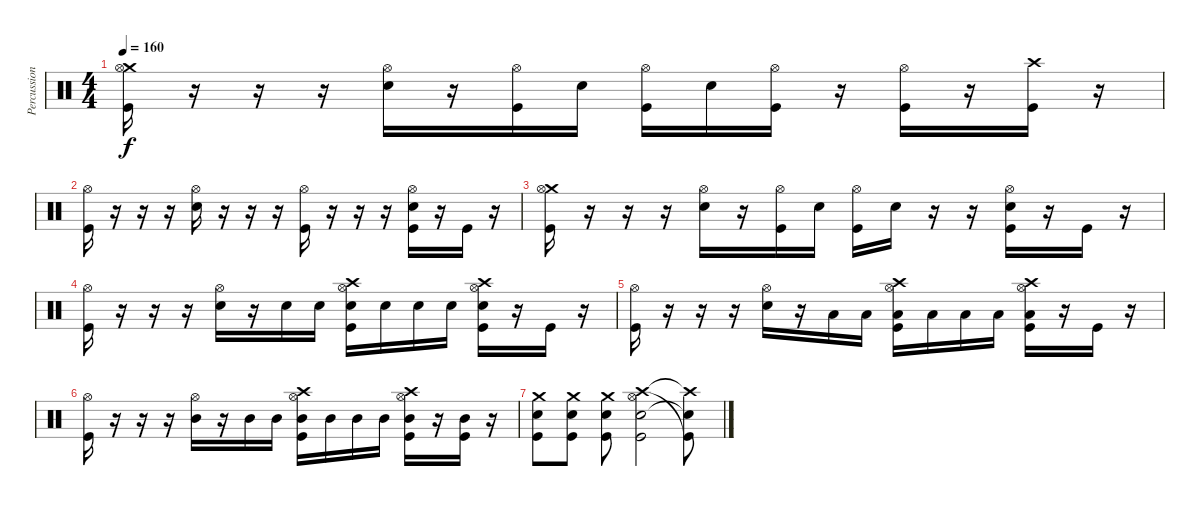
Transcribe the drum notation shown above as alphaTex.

\track ("Percussion" "Percussion") {instrument percussion}
\staff {score}
\articulation defaults
\ts (4 4)
\tempo 160
\clef neutral
\ks c
("Crash medium (hit)" "Hi-Hat (open)" "Kick (hit)").16{dy f} r.16 r.16 r.16 ("Snare (hit) 2" "Hi-Hat (open)").16 r.16 ("Hi-Hat (open)" "Kick (hit)").16 "Snare (hit) 2".16 ("Hi-Hat (open)" "Kick (hit)").16 "Snare (hit) 2".16 ("Hi-Hat (open)" "Kick (hit)").16 r.16 ("Hi-Hat (open)" "Kick (hit)").16 r.16 ("Crash high (hit)" "Kick (hit)").16 r.16 |
("Hi-Hat (open)" "Kick (hit)").16 r.16 r.16 r.16 ("Snare (hit) 2" "Hi-Hat (open)").16 r.16 r.16 r.16 ("Hi-Hat (open)" "Kick (hit)").16 r.16 r.16 r.16 ("Snare (hit) 2" "Hi-Hat (open)" "Kick (hit)").16 r.16 "Kick (hit)".16 r.16 |
("Crash medium (hit)" "Hi-Hat (open)" "Kick (hit)").16 r.16 r.16 r.16 ("Snare (hit) 2" "Hi-Hat (open)").16 r.16 ("Hi-Hat (open)" "Kick (hit)").16 "Snare (hit) 2".16 ("Hi-Hat (open)" "Kick (hit)").16 "Snare (hit) 2".16 r.16 r.16 ("Snare (hit) 2" "Hi-Hat (open)" "Kick (hit)").16 r.16 "Kick (hit)".16 r.16 |
("Hi-Hat (open)" "Kick (hit)").16 r.16 r.16 r.16 ("Snare (hit) 2" "Hi-Hat (open)").16 r.16 "Snare (hit) 2".16 "Snare (hit) 2".16 ("Crash high (hit)" "Snare (hit) 2" "Hi-Hat (open)" "Kick (hit)").16 "Snare (hit) 2".16 "Snare (hit) 2".16 "Snare (hit) 2".16 ("Crash high (hit)" "Snare (hit) 2" "Hi-Hat (open)" "Kick (hit)").16 r.16 "Kick (hit)".16 r.16 |
("Hi-Hat (open)" "Kick (hit)").16 r.16 r.16 r.16 ("Snare (hit) 2" "Hi-Hat (open)").16 r.16 "Low Tom (hit)".16 "Low Tom (hit)".16 ("Crash high (hit)" "Low Tom (hit)" "Hi-Hat (open)" "Kick (hit)").16 "Low Tom (hit)".16 "Low Tom (hit)".16 "Low Tom (hit)".16 ("Crash high (hit)" "Low Tom (hit)" "Hi-Hat (open)" "Kick (hit)").16 r.16 "Kick (hit)".16 r.16 |
("Hi-Hat (open)" "Kick (hit)").16 r.16 r.16 r.16 ("Mid Tom (hit)" "Hi-Hat (open)").16 r.16 "Mid Tom (hit)".16 "Mid Tom (hit)".16 ("Crash high (hit)" "Mid Tom (hit)" "Hi-Hat (open)" "Kick (hit)").16 "Mid Tom (hit)".16 "Mid Tom (hit)".16 "Mid Tom (hit)".16 ("Crash high (hit)" "Mid Tom (hit)" "Hi-Hat (open)" "Kick (hit)").16 r.16 ("Mid Tom (hit)" "Kick (hit)").16 r.16 |
("Crash medium (hit)" "Snare (hit) 2" "Kick (hit)").8 ("Crash medium (hit)" "Snare (hit) 2" "Kick (hit)").8 ("Crash medium (hit)" "Snare (hit) 2" "Kick (hit)").8 ("Crash high (hit)" "Snare (hit) 2" "Hi-Hat (open)" "Kick (hit)").2 ("Crash high (hit)"{t} "Snare (hit) 2"{t} "Kick (hit)"{t}).8
